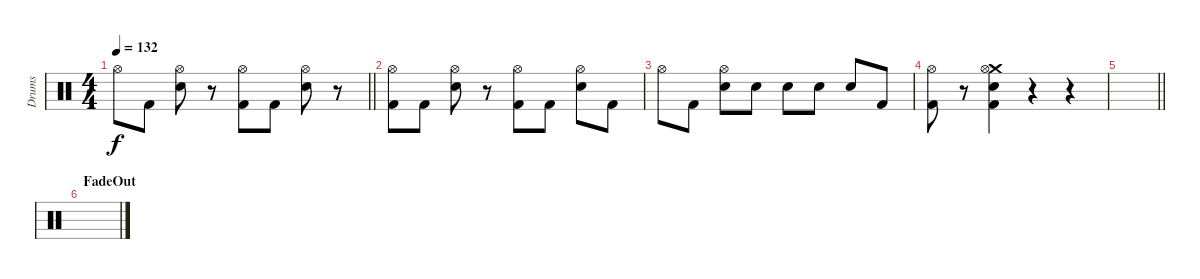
\track ("Drums" "Drums") {instrument percussion}
\staff
\articulation defaults
\ts (4 4)
\tempo 132
\clef neutral
\barLineRight lightlight
\ks c "Hi-Hat (open)".8{dy f} "Kick (hit) 2".8
("Hi-Hat (open)" "Snare (hit) 2").8 r.8 ("Hi-Hat (open)" "Kick (hit) 2").8 "Kick (hit) 2".8 ("Hi-Hat (open)" "Snare (hit) 2").8 r.8 |
("Hi-Hat (open)" "Kick (hit) 2").8 "Kick (hit) 2".8 ("Hi-Hat (open)" "Snare (hit) 2").8 r.8 ("Hi-Hat (open)" "Kick (hit) 2").8 "Kick (hit) 2".8 ("Hi-Hat (open)" "Snare (hit) 2").8 "Kick (hit) 2".8 |
"Hi-Hat (open)".8 "Kick (hit) 2".8 ("Hi-Hat (open)" "Snare (hit) 2").8 "Snare (hit) 2".8 "Snare (hit) 2".8 "Snare (hit) 2".8 "Snare (hit) 2".8 "Kick (hit) 2".8 |
("Hi-Hat (open)" "Kick (hit) 2").8 r.8 ("Crash medium (hit)" "Hi-Hat (open)" "Snare (hit) 2" "Kick (hit) 2").4 r.4 r.4 |
\barLineRight lightlight
|
\section ("" "FadeOut")
